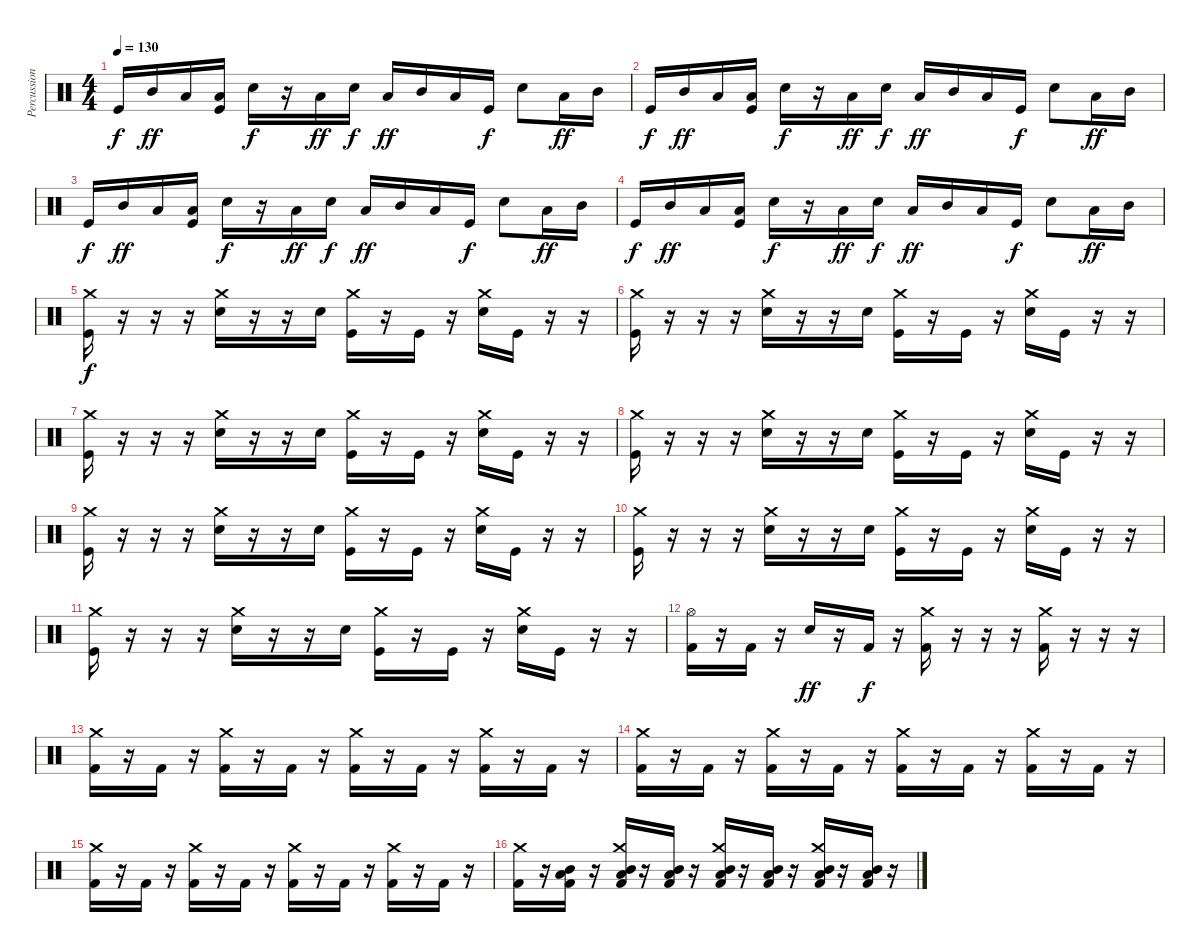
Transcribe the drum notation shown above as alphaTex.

\track ("Percussions" "Percussion") {instrument percussion}
\staff {score}
\articulation defaults
\ts (4 4)
\tempo 130
\clef neutral
\ks c "Kick (hit)".16{dy f} "Mid Tom (hit)".16{dy ff} "Low Tom (hit)".16
("Low Tom (hit)" "Kick (hit)").16 "Snare (hit) 2".16{dy f} r.16 "Low Tom (hit)".16{dy ff} "Snare (hit) 2".16{dy f} "Low Tom (hit)".16{dy ff} "Mid Tom (hit)".16 "Low Tom (hit)".16 "Kick (hit)".16{dy f} "Snare (hit) 2".8 "Low Tom (hit)".16{dy ff} "Mid Tom (hit)".16 |
"Kick (hit)".16{dy f} "Mid Tom (hit)".16{dy ff} "Low Tom (hit)".16 ("Low Tom (hit)" "Kick (hit)").16 "Snare (hit) 2".16{dy f} r.16 "Low Tom (hit)".16{dy ff} "Snare (hit) 2".16{dy f} "Low Tom (hit)".16{dy ff} "Mid Tom (hit)".16 "Low Tom (hit)".16 "Kick (hit)".16{dy f} "Snare (hit) 2".8 "Low Tom (hit)".16{dy ff} "Mid Tom (hit)".16 |
"Kick (hit)".16{dy f} "Mid Tom (hit)".16{dy ff} "Low Tom (hit)".16 ("Low Tom (hit)" "Kick (hit)").16 "Snare (hit) 2".16{dy f} r.16 "Low Tom (hit)".16{dy ff} "Snare (hit) 2".16{dy f} "Low Tom (hit)".16{dy ff} "Mid Tom (hit)".16 "Low Tom (hit)".16 "Kick (hit)".16{dy f} "Snare (hit) 2".8 "Low Tom (hit)".16{dy ff} "Mid Tom (hit)".16 |
"Kick (hit)".16{dy f} "Mid Tom (hit)".16{dy ff} "Low Tom (hit)".16 ("Low Tom (hit)" "Kick (hit)").16 "Snare (hit) 2".16{dy f} r.16 "Low Tom (hit)".16{dy ff} "Snare (hit) 2".16{dy f} "Low Tom (hit)".16{dy ff} "Mid Tom (hit)".16 "Low Tom (hit)".16 "Kick (hit)".16{dy f} "Snare (hit) 2".8 "Low Tom (hit)".16{dy ff} "Mid Tom (hit)".16 |
("Crash medium (hit)" "Kick (hit)").16{dy f} r.16 r.16 r.16 ("Crash medium (hit)" "Snare (hit) 2").16 r.16 r.16 "Snare (hit) 2".16 ("Crash medium (hit)" "Kick (hit)").16 r.16 "Kick (hit)".16 r.16 ("Crash medium (hit)" "Snare (hit) 2").16 "Kick (hit)".16 r.16 r.16 |
("Crash medium (hit)" "Kick (hit)").16 r.16 r.16 r.16 ("Crash medium (hit)" "Snare (hit) 2").16 r.16 r.16 "Snare (hit) 2".16 ("Crash medium (hit)" "Kick (hit)").16 r.16 "Kick (hit)".16 r.16 ("Crash medium (hit)" "Snare (hit) 2").16 "Kick (hit)".16 r.16 r.16 |
("Crash medium (hit)" "Kick (hit)").16 r.16 r.16 r.16 ("Crash medium (hit)" "Snare (hit) 2").16 r.16 r.16 "Snare (hit) 2".16 ("Crash medium (hit)" "Kick (hit)").16 r.16 "Kick (hit)".16 r.16 ("Crash medium (hit)" "Snare (hit) 2").16 "Kick (hit)".16 r.16 r.16 |
("Crash medium (hit)" "Kick (hit)").16 r.16 r.16 r.16 ("Crash medium (hit)" "Snare (hit) 2").16 r.16 r.16 "Snare (hit) 2".16 ("Crash medium (hit)" "Kick (hit)").16 r.16 "Kick (hit)".16 r.16 ("Crash medium (hit)" "Snare (hit) 2").16 "Kick (hit)".16 r.16 r.16 |
("Crash medium (hit)" "Kick (hit)").16 r.16 r.16 r.16 ("Crash medium (hit)" "Snare (hit) 2").16 r.16 r.16 "Snare (hit) 2".16 ("Crash medium (hit)" "Kick (hit)").16 r.16 "Kick (hit)".16 r.16 ("Crash medium (hit)" "Snare (hit) 2").16 "Kick (hit)".16 r.16 r.16 |
("Crash medium (hit)" "Kick (hit)").16 r.16 r.16 r.16 ("Crash medium (hit)" "Snare (hit) 2").16 r.16 r.16 "Snare (hit) 2".16 ("Crash medium (hit)" "Kick (hit)").16 r.16 "Kick (hit)".16 r.16 ("Crash medium (hit)" "Snare (hit) 2").16 "Kick (hit)".16 r.16 r.16 |
("Crash medium (hit)" "Kick (hit)").16 r.16 r.16 r.16 ("Crash medium (hit)" "Snare (hit) 2").16 r.16 r.16 "Snare (hit) 2".16 ("Crash medium (hit)" "Kick (hit)").16 r.16 "Kick (hit)".16 r.16 ("Crash medium (hit)" "Snare (hit) 2").16 "Kick (hit)".16 r.16 r.16 |
("Hi-Hat (open)" "Kick (hit) 2").16 r.16 "Kick (hit) 2".16 r.16 "Snare (hit) 2".16{dy ff} r.16 "Kick (hit) 2".16{dy f} r.16 ("Crash medium (hit)" "Kick (hit) 2").16 r.16 r.16 r.16 ("Crash medium (hit)" "Kick (hit) 2").16 r.16 r.16 r.16 |
("Crash medium (hit)" "Kick (hit) 2").16 r.16 "Kick (hit) 2".16 r.16 ("Crash medium (hit)" "Kick (hit) 2").16 r.16 "Kick (hit) 2".16 r.16 ("Crash medium (hit)" "Kick (hit) 2").16 r.16 "Kick (hit) 2".16 r.16 ("Crash medium (hit)" "Kick (hit) 2").16 r.16 "Kick (hit) 2".16 r.16 |
("Crash medium (hit)" "Kick (hit) 2").16 r.16 "Kick (hit) 2".16 r.16 ("Crash medium (hit)" "Kick (hit) 2").16 r.16 "Kick (hit) 2".16 r.16 ("Crash medium (hit)" "Kick (hit) 2").16 r.16 "Kick (hit) 2".16 r.16 ("Crash medium (hit)" "Kick (hit) 2").16 r.16 "Kick (hit) 2".16 r.16 |
("Crash medium (hit)" "Kick (hit) 2").16 r.16 "Kick (hit) 2".16 r.16 ("Crash medium (hit)" "Kick (hit) 2").16 r.16 "Kick (hit) 2".16 r.16 ("Crash medium (hit)" "Kick (hit) 2").16 r.16 "Kick (hit) 2".16 r.16 ("Crash medium (hit)" "Kick (hit) 2").16 r.16 "Kick (hit) 2".16 r.16 |
("Crash medium (hit)" "Kick (hit) 2").16 r.16 ("Low Tom (hit)" "Mid Tom (hit)" "Kick (hit) 2").16 r.16 ("Crash medium (hit)" "Low Tom (hit)" "Mid Tom (hit)" "Kick (hit) 2").16 r.16 ("Low Tom (hit)" "Mid Tom (hit)" "Kick (hit) 2").16 r.16 ("Crash medium (hit)" "Low Tom (hit)" "Mid Tom (hit)" "Kick (hit) 2").16 r.16 ("Low Tom (hit)" "Mid Tom (hit)" "Kick (hit) 2").16 r.16 ("Crash medium (hit)" "Low Tom (hit)" "Mid Tom (hit)" "Kick (hit) 2").16 r.16 ("Low Tom (hit)" "Mid Tom (hit)" "Kick (hit) 2").16 r.16
